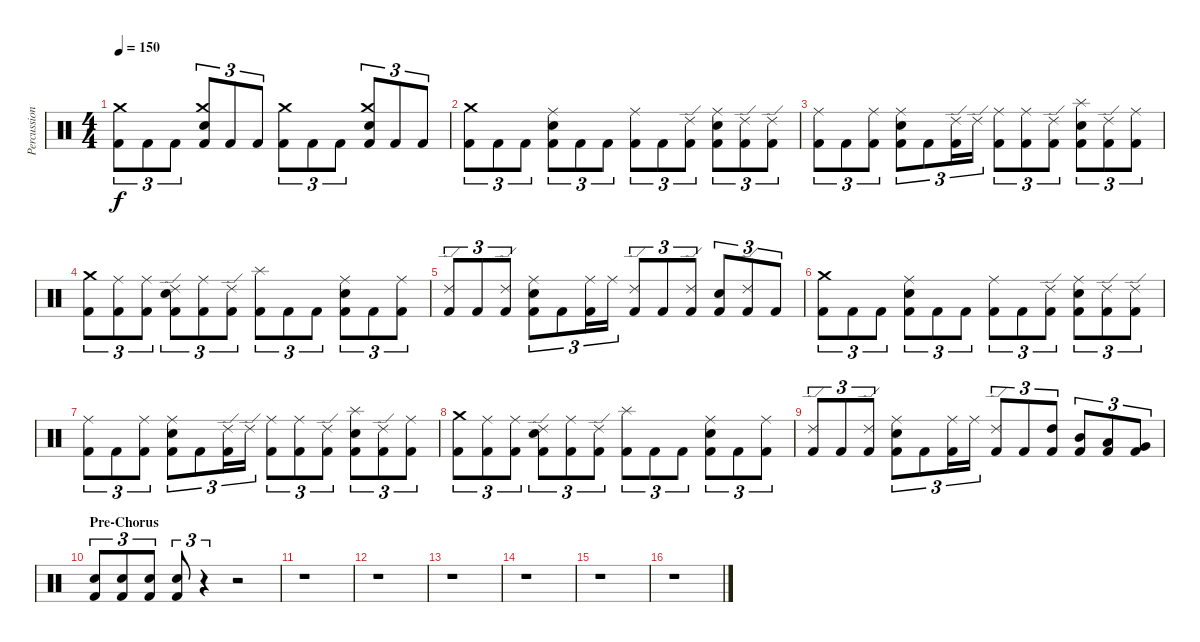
\track ("Percussion" "Percussion") {instrument percussion}
\staff {score}
\articulation defaults
\ts (4 4)
\tempo 150
\clef neutral
\ks c
("Kick (hit) 2" "Crash medium (hit)").8{tu (3 2) dy f} "Kick (hit) 2".8{tu (3 2)} "Kick (hit) 2".8{tu (3 2)} ("Kick (hit) 2" "Electric Snare (hit)" "Crash medium (hit)").8{tu (3 2)} "Kick (hit) 2".8{tu (3 2)} "Kick (hit) 2".8{tu (3 2)} ("Kick (hit) 2" "Crash medium (hit)").8{tu (3 2)} "Kick (hit) 2".8{tu (3 2)} "Kick (hit) 2".8{tu (3 2)} ("Kick (hit) 2" "Electric Snare (hit)" "Crash medium (hit)").8{tu (3 2)} "Kick (hit) 2".8{tu (3 2)} "Kick (hit) 2".8{tu (3 2)} |
("Kick (hit) 2" "Crash medium (hit)").8{tu (3 2)} "Kick (hit) 2".8{tu (3 2)} "Kick (hit) 2".8{tu (3 2)} ("Kick (hit) 2" "Electric Snare (hit)" "Ride (middle)").8{tu (3 2)} "Kick (hit) 2".8{tu (3 2)} "Kick (hit) 2".8{tu (3 2)} ("Kick (hit) 2" "Ride (middle)").8{tu (3 2)} "Kick (hit) 2".8{tu (3 2)} ("Kick (hit) 2" "Ride (edge) 2").8{tu (3 2)} ("Kick (hit) 2" "Electric Snare (hit)" "Ride (middle)").8{tu (3 2)} ("Kick (hit) 2" "Ride (edge) 2").8{tu (3 2)} ("Kick (hit) 2" "Ride (edge) 2").8{tu (3 2)} |
("Kick (hit) 2" "Ride (middle)").8{tu (3 2)} "Kick (hit) 2".8{tu (3 2)} ("Kick (hit) 2" "Ride (middle)").8{tu (3 2)} ("Kick (hit) 2" "Electric Snare (hit)" "Ride (middle)").8{tu (3 2)} "Kick (hit) 2".8{tu (3 2)} ("Kick (hit) 2" "Ride (edge) 2").16{tu (3 2)} "Ride (edge) 2".16{tu (3 2)} ("Kick (hit) 2" "Ride (middle)").8{tu (3 2)} ("Kick (hit) 2" "Ride (middle)").8{tu (3 2)} ("Kick (hit) 2" "Ride (edge) 2").8{tu (3 2)} ("Kick (hit) 2" "Electric Snare (hit)" "Splash (hit)").8{tu (3 2)} ("Kick (hit) 2" "Ride (edge) 2").8{tu (3 2)} ("Kick (hit) 2" "Ride (middle)").8{tu (3 2)} |
("Kick (hit) 2" "Crash medium (hit)").8{tu (3 2)} ("Kick (hit) 2" "Ride (middle)").8{tu (3 2)} ("Kick (hit) 2" "Ride (middle)").8{tu (3 2)} ("Kick (hit) 2" "Electric Snare (hit)" "Ride (edge) 2").8{tu (3 2)} ("Kick (hit) 2" "Ride (middle)").8{tu (3 2)} ("Kick (hit) 2" "Ride (edge) 2").8{tu (3 2)} ("Kick (hit) 2" "Splash (hit)").8{tu (3 2)} "Kick (hit) 2".8{tu (3 2)} "Kick (hit) 2".8{tu (3 2)} ("Kick (hit) 2" "Electric Snare (hit)" "Ride (middle)").8{tu (3 2)} "Kick (hit) 2".8{tu (3 2)} ("Kick (hit) 2" "Ride (middle)").8{tu (3 2)} |
("Kick (hit) 2" "Ride (edge) 2").8{tu (3 2)} "Kick (hit) 2".8{tu (3 2)} ("Kick (hit) 2" "Ride (edge) 2").8{tu (3 2)} ("Kick (hit) 2" "Electric Snare (hit)" "Ride (middle)").8{tu (3 2)} "Kick (hit) 2".8{tu (3 2)} ("Kick (hit) 2" "Ride (middle)").16{tu (3 2)} "Ride (middle)".16{tu (3 2)} ("Kick (hit) 2" "Ride (edge) 2").8{tu (3 2)} "Kick (hit) 2".8{tu (3 2)} ("Kick (hit) 2" "Ride (edge) 2").8{tu (3 2)} ("Kick (hit) 2" "Electric Snare (hit)").8{tu (3 2)} ("Kick (hit) 2" "Ride (edge) 2").8{tu (3 2)} "Kick (hit) 2".8{tu (3 2)} |
("Kick (hit) 2" "Crash medium (hit)").8{tu (3 2)} "Kick (hit) 2".8{tu (3 2)} "Kick (hit) 2".8{tu (3 2)} ("Kick (hit) 2" "Electric Snare (hit)" "Ride (middle)").8{tu (3 2)} "Kick (hit) 2".8{tu (3 2)} "Kick (hit) 2".8{tu (3 2)} ("Kick (hit) 2" "Ride (middle)").8{tu (3 2)} "Kick (hit) 2".8{tu (3 2)} ("Kick (hit) 2" "Ride (edge) 2").8{tu (3 2)} ("Kick (hit) 2" "Electric Snare (hit)" "Ride (middle)").8{tu (3 2)} ("Kick (hit) 2" "Ride (edge) 2").8{tu (3 2)} ("Kick (hit) 2" "Ride (edge) 2").8{tu (3 2)} |
("Kick (hit) 2" "Ride (middle)").8{tu (3 2)} "Kick (hit) 2".8{tu (3 2)} ("Kick (hit) 2" "Ride (middle)").8{tu (3 2)} ("Kick (hit) 2" "Electric Snare (hit)" "Ride (middle)").8{tu (3 2)} "Kick (hit) 2".8{tu (3 2)} ("Kick (hit) 2" "Ride (edge) 2").16{tu (3 2)} "Ride (edge) 2".16{tu (3 2)} ("Kick (hit) 2" "Ride (middle)").8{tu (3 2)} ("Kick (hit) 2" "Ride (middle)").8{tu (3 2)} ("Kick (hit) 2" "Ride (edge) 2").8{tu (3 2)} ("Kick (hit) 2" "Electric Snare (hit)" "Splash (hit)").8{tu (3 2)} ("Kick (hit) 2" "Ride (edge) 2").8{tu (3 2)} ("Kick (hit) 2" "Ride (middle)").8{tu (3 2)} |
("Kick (hit) 2" "Crash medium (hit)").8{tu (3 2)} ("Kick (hit) 2" "Ride (middle)").8{tu (3 2)} ("Kick (hit) 2" "Ride (middle)").8{tu (3 2)} ("Kick (hit) 2" "Electric Snare (hit)" "Ride (edge) 2").8{tu (3 2)} ("Kick (hit) 2" "Ride (middle)").8{tu (3 2)} ("Kick (hit) 2" "Ride (edge) 2").8{tu (3 2)} ("Kick (hit) 2" "Splash (hit)").8{tu (3 2)} "Kick (hit) 2".8{tu (3 2)} "Kick (hit) 2".8{tu (3 2)} ("Kick (hit) 2" "Electric Snare (hit)" "Ride (middle)").8{tu (3 2)} "Kick (hit) 2".8{tu (3 2)} ("Kick (hit) 2" "Ride (middle)").8{tu (3 2)} |
("Kick (hit) 2" "Ride (edge) 2").8{tu (3 2)} "Kick (hit) 2".8{tu (3 2)} ("Kick (hit) 2" "Ride (edge) 2").8{tu (3 2)} ("Kick (hit) 2" "Electric Snare (hit)" "Ride (middle)").8{tu (3 2)} "Kick (hit) 2".8{tu (3 2)} ("Kick (hit) 2" "Ride (middle)").16{tu (3 2)} "Ride (middle)".16{tu (3 2)} ("Kick (hit) 2" "Ride (edge) 2").8{tu (3 2)} "Kick (hit) 2".8{tu (3 2)} ("Kick (hit) 2" "High Tom (hit)").8{tu (3 2)} ("Kick (hit) 2" "Mid Tom (hit)").8{tu (3 2)} ("Kick (hit) 2" "Low Tom (hit)").8{tu (3 2)} ("Kick (hit) 2" "Very Low Tom (hit)").8{tu (3 2)} |
\section ("" "Pre-Chorus")
("Kick (hit) 2" "Electric Snare (hit)").8{tu (3 2)} ("Kick (hit) 2" "Electric Snare (hit)").8{tu (3 2)} ("Kick (hit) 2" "Electric Snare (hit)").8{tu (3 2)} ("Kick (hit) 2" "Electric Snare (hit)").8{tu (3 2)} r.4{tu (3 2)} r.2 |
r.1 |
r.1 |
r.1 |
r.1 |
r.1 |
r.1
